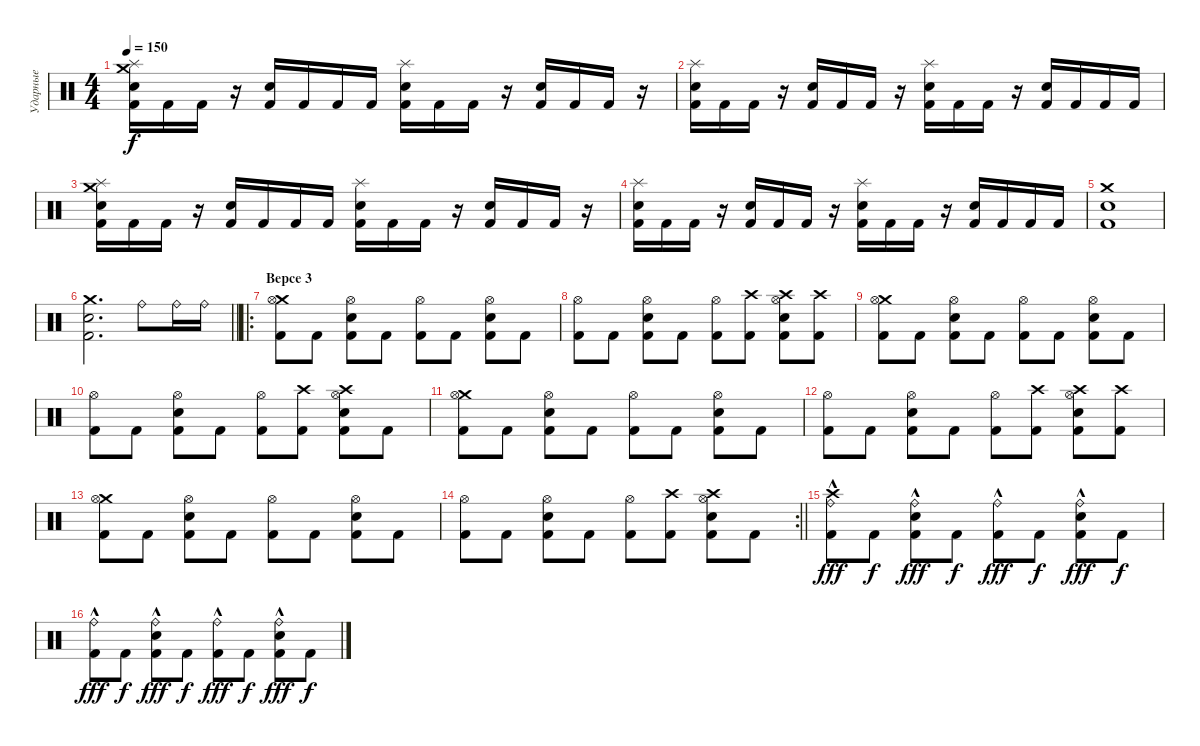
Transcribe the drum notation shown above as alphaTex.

\track ("Ударные" "Ударные") {instrument percussion}
\staff {score}
\articulation defaults
\ts (4 4)
\tempo 150
\clef neutral
\ks c
("Crash medium (hit)" "Splash (hit)" "Snare (hit) 2" "Kick (hit) 2").16{dy f} "Kick (hit) 2".16 "Kick (hit) 2".16 r.16 ("Snare (hit) 2" "Kick (hit) 2").16 "Kick (hit) 2".16 "Kick (hit) 2".16 "Kick (hit) 2".16 ("Splash (hit)" "Snare (hit) 2" "Kick (hit) 2").16 "Kick (hit) 2".16 "Kick (hit) 2".16 r.16 ("Snare (hit) 2" "Kick (hit) 2").16 "Kick (hit) 2".16 "Kick (hit) 2".16 r.16 |
("Splash (hit)" "Snare (hit) 2" "Kick (hit) 2").16 "Kick (hit) 2".16 "Kick (hit) 2".16 r.16 ("Snare (hit) 2" "Kick (hit) 2").16 "Kick (hit) 2".16 "Kick (hit) 2".16 r.16 ("Splash (hit)" "Snare (hit) 2" "Kick (hit) 2").16 "Kick (hit) 2".16 "Kick (hit) 2".16 r.16 ("Snare (hit) 2" "Kick (hit) 2").16 "Kick (hit) 2".16 "Kick (hit) 2".16 "Kick (hit) 2".16 |
("Crash medium (hit)" "Splash (hit)" "Snare (hit) 2" "Kick (hit) 2").16 "Kick (hit) 2".16 "Kick (hit) 2".16 r.16 ("Snare (hit) 2" "Kick (hit) 2").16 "Kick (hit) 2".16 "Kick (hit) 2".16 "Kick (hit) 2".16 ("Splash (hit)" "Snare (hit) 2" "Kick (hit) 2").16 "Kick (hit) 2".16 "Kick (hit) 2".16 r.16 ("Snare (hit) 2" "Kick (hit) 2").16 "Kick (hit) 2".16 "Kick (hit) 2".16 r.16 |
("Splash (hit)" "Snare (hit) 2" "Kick (hit) 2").16 "Kick (hit) 2".16 "Kick (hit) 2".16 r.16 ("Snare (hit) 2" "Kick (hit) 2").16 "Kick (hit) 2".16 "Kick (hit) 2".16 r.16 ("Splash (hit)" "Snare (hit) 2" "Kick (hit) 2").16 "Kick (hit) 2".16 "Kick (hit) 2".16 r.16 ("Snare (hit) 2" "Kick (hit) 2").16 "Kick (hit) 2".16 "Kick (hit) 2".16 "Kick (hit) 2".16 |
("Crash medium (hit)" "Snare (hit) 2" "Kick (hit) 2").1 |
\barLineRight lightlight
("Crash medium (hit)" "Snare (hit) 2" "Kick (hit) 2").2{d} "Ride (bell)".8 "Ride (bell)".16 "Ride (bell)".16 |
\ro
\section ("" "Версе 3")
("Crash medium (hit)" "Hi-Hat (open)" "Kick (hit) 2").8 "Kick (hit) 2".8 ("Hi-Hat (open)" "Snare (hit) 2" "Kick (hit) 2").8 "Kick (hit) 2".8 ("Hi-Hat (open)" "Kick (hit) 2").8 "Kick (hit) 2".8 ("Hi-Hat (open)" "Snare (hit) 2" "Kick (hit) 2").8 "Kick (hit) 2".8 |
("Hi-Hat (open)" "Kick (hit) 2").8 "Kick (hit) 2".8 ("Hi-Hat (open)" "Snare (hit) 2" "Kick (hit) 2").8 "Kick (hit) 2".8 ("Hi-Hat (open)" "Kick (hit) 2").8 ("Crash high (hit)" "Kick (hit) 2").8 ("Crash high (hit)" "Hi-Hat (open)" "Snare (hit) 2" "Kick (hit) 2").8 ("Crash high (hit)" "Kick (hit) 2").8 |
("Crash medium (hit)" "Hi-Hat (open)" "Kick (hit) 2").8 "Kick (hit) 2".8 ("Hi-Hat (open)" "Snare (hit) 2" "Kick (hit) 2").8 "Kick (hit) 2".8 ("Hi-Hat (open)" "Kick (hit) 2").8 "Kick (hit) 2".8 ("Hi-Hat (open)" "Snare (hit) 2" "Kick (hit) 2").8 "Kick (hit) 2".8 |
("Hi-Hat (open)" "Kick (hit) 2").8 "Kick (hit) 2".8 ("Hi-Hat (open)" "Snare (hit) 2" "Kick (hit) 2").8 "Kick (hit) 2".8 ("Hi-Hat (open)" "Kick (hit) 2").8 ("Crash high (hit)" "Kick (hit) 2").8 ("Crash high (hit)" "Hi-Hat (open)" "Snare (hit) 2" "Kick (hit) 2").8 "Kick (hit) 2".8 |
("Crash medium (hit)" "Hi-Hat (open)" "Kick (hit) 2").8 "Kick (hit) 2".8 ("Hi-Hat (open)" "Snare (hit) 2" "Kick (hit) 2").8 "Kick (hit) 2".8 ("Hi-Hat (open)" "Kick (hit) 2").8 "Kick (hit) 2".8 ("Hi-Hat (open)" "Snare (hit) 2" "Kick (hit) 2").8 "Kick (hit) 2".8 |
("Hi-Hat (open)" "Kick (hit) 2").8 "Kick (hit) 2".8 ("Hi-Hat (open)" "Snare (hit) 2" "Kick (hit) 2").8 "Kick (hit) 2".8 ("Hi-Hat (open)" "Kick (hit) 2").8 ("Crash high (hit)" "Kick (hit) 2").8 ("Crash high (hit)" "Hi-Hat (open)" "Snare (hit) 2" "Kick (hit) 2").8 ("Crash high (hit)" "Kick (hit) 2").8 |
("Crash medium (hit)" "Hi-Hat (open)" "Kick (hit) 2").8 "Kick (hit) 2".8 ("Hi-Hat (open)" "Snare (hit) 2" "Kick (hit) 2").8 "Kick (hit) 2".8 ("Hi-Hat (open)" "Kick (hit) 2").8 "Kick (hit) 2".8 ("Hi-Hat (open)" "Snare (hit) 2" "Kick (hit) 2").8 "Kick (hit) 2".8 |
\rc 2
\barLineRight lightlight
("Hi-Hat (open)" "Kick (hit) 2").8 "Kick (hit) 2".8 ("Hi-Hat (open)" "Snare (hit) 2" "Kick (hit) 2").8 "Kick (hit) 2".8 ("Hi-Hat (open)" "Kick (hit) 2").8 ("Crash high (hit)" "Kick (hit) 2").8 ("Crash high (hit)" "Hi-Hat (open)" "Snare (hit) 2" "Kick (hit) 2").8 "Kick (hit) 2".8 |
("Crash high (hit)" "Ride (bell)"{hac} "Kick (hit) 2").8{dy fff} "Kick (hit) 2".8{dy f} ("Ride (bell)"{hac} "Snare (hit) 2" "Kick (hit) 2").8{dy fff} "Kick (hit) 2".8{dy f} ("Ride (bell)"{hac} "Kick (hit) 2").8{dy fff} "Kick (hit) 2".8{dy f} ("Ride (bell)"{hac} "Snare (hit) 2" "Kick (hit) 2").8{dy fff} "Kick (hit) 2".8{dy f} |
("Ride (bell)"{hac} "Kick (hit) 2").8{dy fff} "Kick (hit) 2".8{dy f} ("Ride (bell)"{hac} "Snare (hit) 2" "Kick (hit) 2").8{dy fff} "Kick (hit) 2".8{dy f} ("Ride (bell)"{hac} "Kick (hit) 2").8{dy fff} "Kick (hit) 2".8{dy f} ("Ride (bell)"{hac} "Snare (hit) 2" "Kick (hit) 2").8{dy fff} "Kick (hit) 2".8{dy f}
